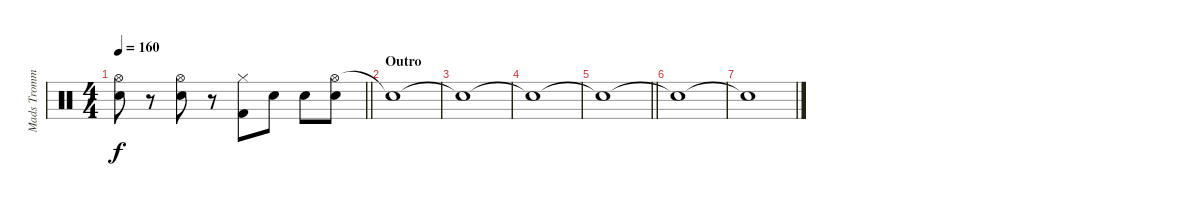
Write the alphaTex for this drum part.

\track ("Mads Trommer" "Mads Tromm") {instrument percussion}
\staff {score}
\articulation defaults
\ts (4 4)
\tempo 160
\clef neutral
\barLineRight lightlight
\ks c
("Hi-Hat (open)" "Electric Snare (hit)").8{dy f} r.8 ("Hi-Hat (open)" "Electric Snare (hit)").8 r.8 ("Hi-Hat (closed)" "Kick (hit) 2").8 "Electric Snare (hit)".8 "Electric Snare (hit)".8 ("Hi-Hat (open)" "Electric Snare (hit)").8 |
\section ("" "Outro")
"Snare (hit)"{t}.1 |
"Snare (hit)"{t}.1 |
"Snare (hit)"{t}.1 |
\barLineRight lightlight "Snare (hit)"{t}.1
|
"Snare (hit)"{t}.1 |
"Snare (hit)"{t}.1
